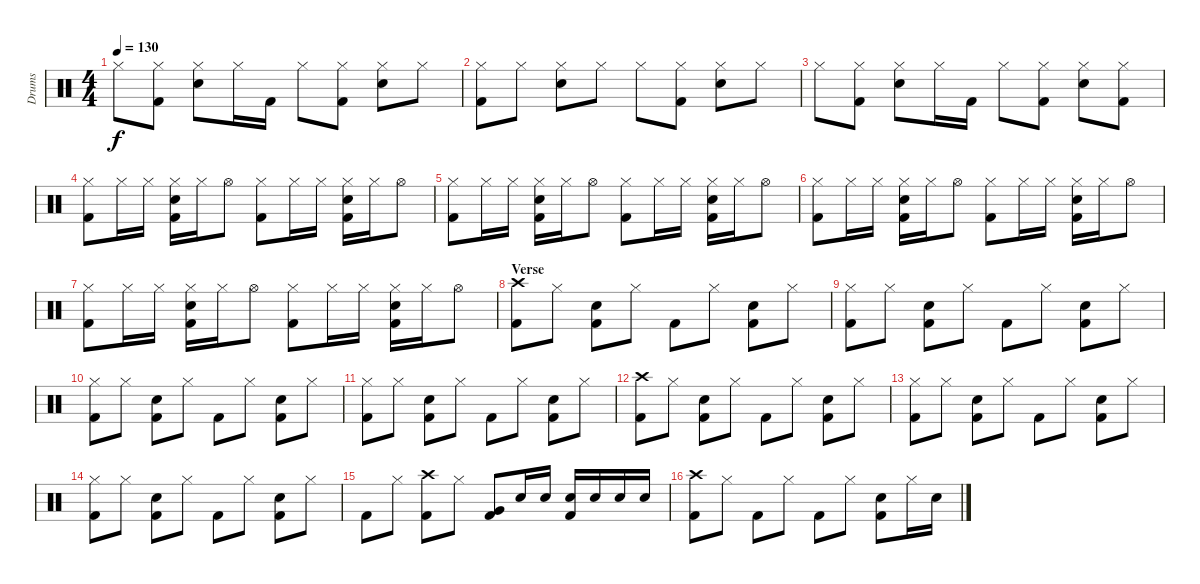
\track ("Drums" "Drums") {instrument percussion}
\staff {score}
\articulation defaults
\ts (4 4)
\tempo 130
\clef neutral
\ks c "Hi-Hat (closed)".8{dy f}
("Hi-Hat (closed)" "Kick (hit) 2").8 ("Hi-Hat (closed)" "Snare (hit) 2").8 "Hi-Hat (closed)".16 "Kick (hit) 2".16 "Hi-Hat (closed)".8 ("Hi-Hat (closed)" "Kick (hit) 2").8 ("Hi-Hat (closed)" "Snare (hit) 2").8 "Hi-Hat (closed)".8 |
("Hi-Hat (closed)" "Kick (hit) 2").8 "Hi-Hat (closed)".8 ("Hi-Hat (closed)" "Snare (hit) 2").8 "Hi-Hat (closed)".8 "Hi-Hat (closed)".8 ("Hi-Hat (closed)" "Kick (hit) 2").8 ("Hi-Hat (closed)" "Snare (hit) 2").8 "Hi-Hat (closed)".8 |
"Hi-Hat (closed)".8 ("Hi-Hat (closed)" "Kick (hit) 2").8 ("Hi-Hat (closed)" "Snare (hit) 2").8 "Hi-Hat (closed)".16 "Kick (hit) 2".16 "Hi-Hat (closed)".8 ("Hi-Hat (closed)" "Kick (hit) 2").8 ("Hi-Hat (closed)" "Snare (hit) 2").8 ("Hi-Hat (closed)" "Kick (hit) 2").8 |
("Hi-Hat (closed)" "Kick (hit) 2").8 "Hi-Hat (closed)".16 "Hi-Hat (closed)".16 ("Hi-Hat (closed)" "Snare (hit) 2" "Kick (hit) 2").16 "Hi-Hat (closed)".16 "Hi-Hat (open)".8 ("Hi-Hat (closed)" "Kick (hit) 2").8 "Hi-Hat (closed)".16 "Hi-Hat (closed)".16 ("Hi-Hat (closed)" "Snare (hit) 2" "Kick (hit) 2").16 "Hi-Hat (closed)".16 "Hi-Hat (open)".8 |
("Hi-Hat (closed)" "Kick (hit) 2").8 "Hi-Hat (closed)".16 "Hi-Hat (closed)".16 ("Hi-Hat (closed)" "Snare (hit) 2" "Kick (hit) 2").16 "Hi-Hat (closed)".16 "Hi-Hat (open)".8 ("Hi-Hat (closed)" "Kick (hit) 2").8 "Hi-Hat (closed)".16 "Hi-Hat (closed)".16 ("Hi-Hat (closed)" "Snare (hit) 2" "Kick (hit) 2").16 "Hi-Hat (closed)".16 "Hi-Hat (open)".8 |
("Hi-Hat (closed)" "Kick (hit) 2").8 "Hi-Hat (closed)".16 "Hi-Hat (closed)".16 ("Hi-Hat (closed)" "Snare (hit) 2" "Kick (hit) 2").16 "Hi-Hat (closed)".16 "Hi-Hat (open)".8 ("Hi-Hat (closed)" "Kick (hit) 2").8 "Hi-Hat (closed)".16 "Hi-Hat (closed)".16 ("Hi-Hat (closed)" "Snare (hit) 2" "Kick (hit) 2").16 "Hi-Hat (closed)".16 "Hi-Hat (open)".8 |
("Hi-Hat (closed)" "Kick (hit) 2").8 "Hi-Hat (closed)".16 "Hi-Hat (closed)".16 ("Hi-Hat (closed)" "Snare (hit) 2" "Kick (hit) 2").16 "Hi-Hat (closed)".16 "Hi-Hat (open)".8 ("Hi-Hat (closed)" "Kick (hit) 2").8 "Hi-Hat (closed)".16 "Hi-Hat (closed)".16 ("Hi-Hat (closed)" "Snare (hit) 2" "Kick (hit) 2").16 "Hi-Hat (closed)".16 "Hi-Hat (open)".8 |
\section ("" "Verse")
("Crash high (hit)" "Kick (hit) 2").8 "Hi-Hat (closed)".8 ("Snare (hit) 2" "Kick (hit) 2").8 "Hi-Hat (closed)".8 "Kick (hit) 2".8 "Hi-Hat (closed)".8 ("Snare (hit) 2" "Kick (hit) 2").8 "Hi-Hat (closed)".8 |
("Hi-Hat (closed)" "Kick (hit) 2").8 "Hi-Hat (closed)".8 ("Snare (hit) 2" "Kick (hit) 2").8 "Hi-Hat (closed)".8 "Kick (hit) 2".8 "Hi-Hat (closed)".8 ("Snare (hit) 2" "Kick (hit) 2").8 "Hi-Hat (closed)".8 |
("Hi-Hat (closed)" "Kick (hit) 2").8 "Hi-Hat (closed)".8 ("Snare (hit) 2" "Kick (hit) 2").8 "Hi-Hat (closed)".8 "Kick (hit) 2".8 "Hi-Hat (closed)".8 ("Snare (hit) 2" "Kick (hit) 2").8 "Hi-Hat (closed)".8 |
("Hi-Hat (closed)" "Kick (hit) 2").8 "Hi-Hat (closed)".8 ("Snare (hit) 2" "Kick (hit) 2").8 "Hi-Hat (closed)".8 "Kick (hit) 2".8 "Hi-Hat (closed)".8 ("Snare (hit) 2" "Kick (hit) 2").8 "Hi-Hat (closed)".8 |
("Crash high (hit)" "Kick (hit) 2").8 "Hi-Hat (closed)".8 ("Snare (hit) 2" "Kick (hit) 2").8 "Hi-Hat (closed)".8 "Kick (hit) 2".8 "Hi-Hat (closed)".8 ("Snare (hit) 2" "Kick (hit) 2").8 "Hi-Hat (closed)".8 |
("Hi-Hat (closed)" "Kick (hit) 2").8 "Hi-Hat (closed)".8 ("Snare (hit) 2" "Kick (hit) 2").8 "Hi-Hat (closed)".8 "Kick (hit) 2".8 "Hi-Hat (closed)".8 ("Snare (hit) 2" "Kick (hit) 2").8 "Hi-Hat (closed)".8 |
("Hi-Hat (closed)" "Kick (hit) 2").8 "Hi-Hat (closed)".8 ("Snare (hit) 2" "Kick (hit) 2").8 "Hi-Hat (closed)".8 "Kick (hit) 2".8 "Hi-Hat (closed)".8 ("Snare (hit) 2" "Kick (hit) 2").8 "Hi-Hat (closed)".8 |
"Kick (hit) 2".8 "Hi-Hat (closed)".8 ("Crash high (hit)" "Kick (hit) 2").8 "Hi-Hat (closed)".8 ("Very Low Tom (hit)" "Kick (hit) 2").8 "Snare (hit) 2".16 "Snare (hit) 2".16 ("Snare (hit) 2" "Kick (hit) 2").16 "Snare (hit) 2".16 "Snare (hit) 2".16 "Snare (hit) 2".16 |
("Crash high (hit)" "Kick (hit) 2").8 "Hi-Hat (closed)".8 "Kick (hit) 2".8 "Hi-Hat (closed)".8 "Kick (hit) 2".8 "Hi-Hat (closed)".8 ("Snare (hit) 2" "Kick (hit) 2").8 "Hi-Hat (closed)".16 "Snare (hit) 2".16
